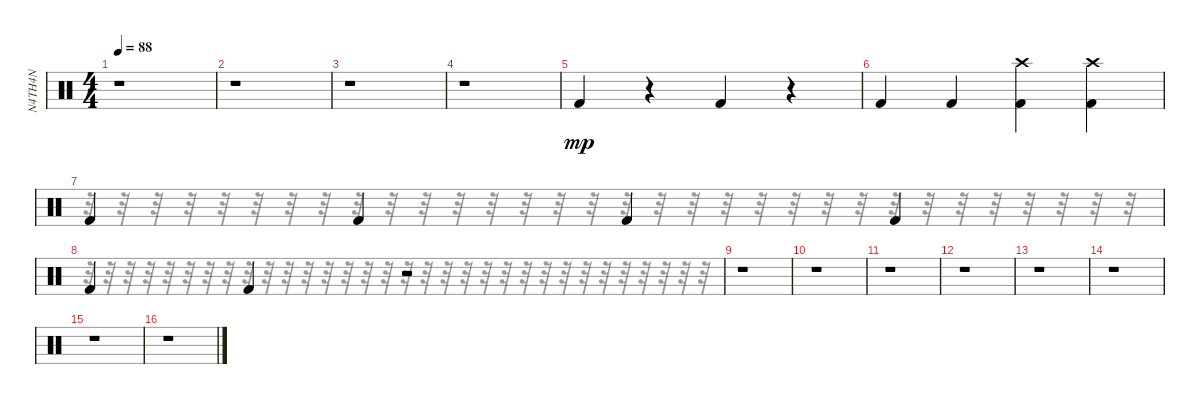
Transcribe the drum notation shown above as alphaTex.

\track ("N4TH4N" "N4TH4N") {instrument percussion}
\staff {score}
\articulation defaults
\voice
\ts (4 4)
\tempo 88
\clef neutral
\ks c
r.1{dy f} |
r.1 |
r.1 |
r.1 |
"Kick (hit) 2".4{dy mp} r.4 "Kick (hit) 2".4 r.4 |
"Kick (hit) 2".4 "Kick (hit) 2".4 ("Kick (hit) 2" "Crash high (hit)").4 ("Kick (hit) 2" "Crash high (hit)").4 |
"Kick (hit) 2".4 "Kick (hit) 2".4 "Kick (hit) 2".4 "Kick (hit) 2".4 |
"Kick (hit) 2".4 "Kick (hit) 2".4 r.2 |
r.1 |
r.1 |
r.1 |
r.1 |
r.1 |
r.1 |
r.1 |
r.1
\voice
\clef neutral
\ottava regular
\simile none
\ks c
|
|
|
|
|
|
r.32 r.32 r.32 r.32 r.32 r.32 r.32 r.32 r.32 r.32 r.32 r.32 r.32 r.32 r.32 r.32 r.32 r.32 r.32 r.32 r.32 r.32 r.32 r.32 r.32 r.32 r.32 r.32 r.32 r.32 r.32 r.32 |
r.32 r.32 r.32 r.32 r.32 r.32 r.32 r.32 r.32 r.32 r.32 r.32 r.32 r.32 r.32 r.32 r.32 r.32 r.32 r.32 r.32 r.32 r.32 r.32 r.32 r.32 r.32 r.32 r.32 r.32 r.32 r.32 |
|
|
|
|
|
|
|
